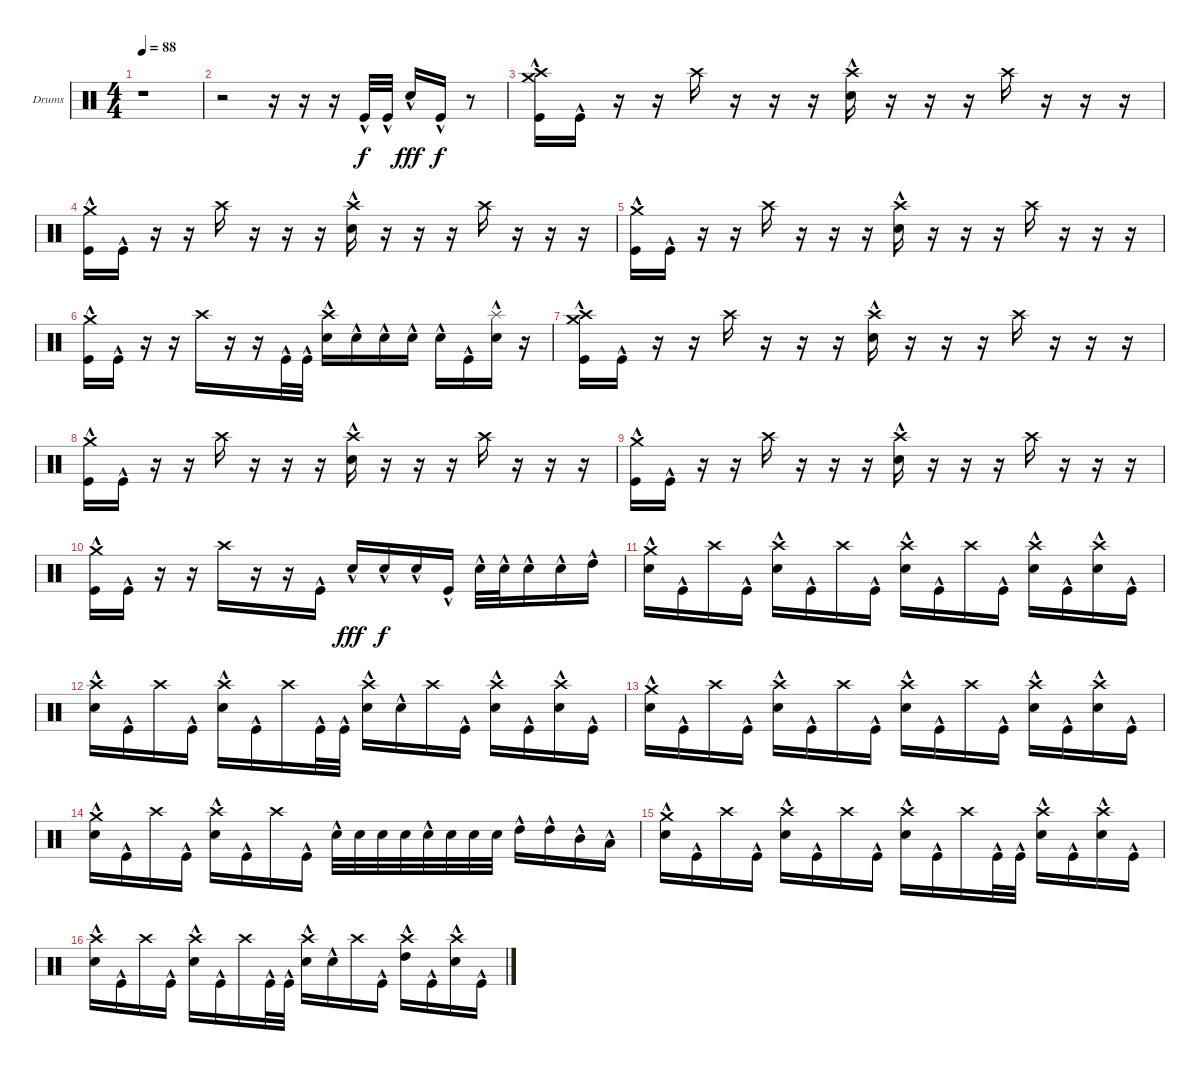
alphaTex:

\bracketExtendMode groupsimilarinstruments
\firstSystemTrackNameOrientation horizontal
\otherSystemsTrackNameOrientation horizontal
\track ("Drumkit" "Drums") {instrument percussion}
\staff {score}
\articulation defaults
\ts (4 4)
\tempo 88
\clef neutral
\ks c
r.1{dy f} |
r.2 r.16 r.16 r.16 "Kick (hit)"{hac}.32 "Kick (hit)"{hac}.32 "Snare (hit) 2"{hac}.16{dy fff} "Kick (hit)"{hac}.16{dy f} r.8 |
("Kick (hit)"{hac} "Crash high (hit)" "Crash medium (hit)").16 "Kick (hit)"{hac}.16 r.16 r.16 "Crash high (hit)".16 r.16 r.16 r.16 ("Snare (hit) 2"{hac} "Crash high (hit)").16 r.16 r.16 r.16 "Crash high (hit)".16 r.16 r.16 r.16 |
("Kick (hit)"{hac} "Crash medium (hit)").16 "Kick (hit)"{hac}.16 r.16 r.16 "Crash high (hit)".16 r.16 r.16 r.16 ("Snare (hit) 2"{hac} "Crash high (hit)").16 r.16 r.16 r.16 "Crash high (hit)".16 r.16 r.16 r.16 |
("Kick (hit)"{hac} "Crash medium (hit)").16 "Kick (hit)"{hac}.16 r.16 r.16 "Crash high (hit)".16 r.16 r.16 r.16 ("Snare (hit) 2"{hac} "Crash high (hit)").16 r.16 r.16 r.16 "Crash high (hit)".16 r.16 r.16 r.16 |
("Kick (hit)"{hac} "Crash medium (hit)").16 "Kick (hit)"{hac}.16 r.16 r.16 "Crash high (hit)".16 r.16 r.16 "Kick (hit)"{hac}.32 "Kick (hit)"{hac}.32 ("Snare (hit) 2"{hac} "Crash high (hit)").16 "Snare (hit) 2"{hac}.16 "Snare (hit) 2"{hac}.16 "Snare (hit) 2"{hac}.16 "Snare (hit) 2"{hac}.16 "Kick (hit)"{hac}.16 ("Snare (hit) 2"{hac} "Splash (hit)").16 r.16 |
("Kick (hit)"{hac} "Crash high (hit)" "Crash medium (hit)").16 "Kick (hit)"{hac}.16 r.16 r.16 "Crash high (hit)".16 r.16 r.16 r.16 ("Snare (hit) 2"{hac} "Crash high (hit)").16 r.16 r.16 r.16 "Crash high (hit)".16 r.16 r.16 r.16 |
("Kick (hit)"{hac} "Crash medium (hit)").16 "Kick (hit)"{hac}.16 r.16 r.16 "Crash high (hit)".16 r.16 r.16 r.16 ("Snare (hit) 2"{hac} "Crash high (hit)").16 r.16 r.16 r.16 "Crash high (hit)".16 r.16 r.16 r.16 |
("Kick (hit)"{hac} "Crash medium (hit)").16 "Kick (hit)"{hac}.16 r.16 r.16 "Crash high (hit)".16 r.16 r.16 r.16 ("Snare (hit) 2"{hac} "Crash high (hit)").16 r.16 r.16 r.16 "Crash high (hit)".16 r.16 r.16 r.16 |
("Kick (hit)"{hac} "Crash medium (hit)").16 "Kick (hit)"{hac}.16 r.16 r.16 "Crash high (hit)".16 r.16 r.16 "Kick (hit)"{hac}.16 "Snare (hit) 2"{hac}.16{dy fff} "Snare (hit) 2"{hac}.16{dy f} "Snare (hit) 2"{hac}.16 "Kick (hit)"{hac}.16 "Snare (hit) 2"{hac}.32 "Snare (hit) 2"{hac}.32 "Snare (hit) 2"{hac}.16 "Snare (hit) 2"{hac}.16 "High Tom (hit)"{hac}.16 |
("Snare (hit) 2"{hac} "Crash medium (hit)"{hac}).16 "Kick (hit)"{hac}.16 "Crash high (hit)".16 "Kick (hit)"{hac}.16 ("Snare (hit) 2"{hac} "Crash high (hit)").16 "Kick (hit)"{hac}.16 "Crash high (hit)".16 "Kick (hit)"{hac}.16 ("Snare (hit) 2"{hac} "Crash high (hit)").16 "Kick (hit)"{hac}.16 "Crash high (hit)".16 "Kick (hit)"{hac}.16 ("Snare (hit) 2"{hac} "Crash high (hit)").16 "Kick (hit)"{hac}.16 ("Snare (hit) 2"{hac} "Crash high (hit)").16 "Kick (hit)"{hac}.16 |
("Snare (hit) 2"{hac} "Crash high (hit)"{hac}).16 "Kick (hit)"{hac}.16 "Crash high (hit)".16 "Kick (hit)"{hac}.16 ("Snare (hit) 2"{hac} "Crash high (hit)").16 "Kick (hit)"{hac}.16 "Crash high (hit)".16 "Kick (hit)"{hac}.32 "Kick (hit)"{hac}.32 ("Snare (hit) 2"{hac} "Crash high (hit)").16 "Snare (hit) 2"{hac}.16 "Crash high (hit)".16 "Kick (hit)"{hac}.16 ("Snare (hit) 2"{hac} "Crash high (hit)").16 "Kick (hit)"{hac}.16 ("Snare (hit) 2"{hac} "Crash high (hit)").16 "Kick (hit)"{hac}.16 |
("Snare (hit) 2"{hac} "Crash medium (hit)"{hac}).16 "Kick (hit)"{hac}.16 "Crash high (hit)".16 "Kick (hit)"{hac}.16 ("Snare (hit) 2"{hac} "Crash high (hit)").16 "Kick (hit)"{hac}.16 "Crash high (hit)".16 "Kick (hit)"{hac}.16 ("Snare (hit) 2"{hac} "Crash high (hit)").16 "Kick (hit)"{hac}.16 "Crash high (hit)".16 "Kick (hit)"{hac}.16 ("Snare (hit) 2"{hac} "Crash high (hit)").16 "Kick (hit)"{hac}.16 ("Snare (hit) 2"{hac} "Crash high (hit)").16 "Kick (hit)"{hac}.16 |
("Snare (hit) 2"{hac} "Crash medium (hit)"{hac}).16 "Kick (hit)"{hac}.16 "Crash high (hit)".16 "Kick (hit)"{hac}.16 ("Snare (hit) 2"{hac} "Crash high (hit)").16 "Kick (hit)"{hac}.16 "Crash high (hit)".16 "Kick (hit)"{hac}.16 "Snare (hit) 2"{hac}.32 "Snare (hit) 2".32 "Snare (hit) 2".32 "Snare (hit) 2".32 "Snare (hit) 2"{hac}.32 "Snare (hit) 2".32 "Snare (hit) 2".32 "Snare (hit) 2".32 "High Tom (hit)"{hac}.16 "High Tom (hit)"{hac}.16 "Mid Tom (hit)"{hac}.16 "Low Tom (hit)"{hac}.16 |
("Snare (hit) 2"{hac} "Crash medium (hit)"{hac}).16 "Kick (hit)"{hac}.16 "Crash high (hit)".16 "Kick (hit)"{hac}.16 ("Snare (hit) 2"{hac} "Crash high (hit)").16 "Kick (hit)"{hac}.16 "Crash high (hit)".16 "Kick (hit)"{hac}.16 ("Snare (hit) 2"{hac} "Crash high (hit)").16 "Kick (hit)"{hac}.16 "Crash high (hit)".16 "Kick (hit)"{hac}.32 "Kick (hit)"{hac}.32 ("Snare (hit) 2"{hac} "Crash high (hit)").16 "Kick (hit)"{hac}.16 ("Snare (hit) 2"{hac} "Crash high (hit)").16 "Kick (hit)"{hac}.16 |
("Snare (hit) 2"{hac} "Crash high (hit)"{hac}).16 "Kick (hit)"{hac}.16 "Crash high (hit)".16 "Kick (hit)"{hac}.16 ("Snare (hit) 2"{hac} "Crash high (hit)").16 "Kick (hit)"{hac}.16 "Crash high (hit)".16 "Kick (hit)"{hac}.32 "Kick (hit)"{hac}.32 ("Snare (hit) 2"{hac} "Crash high (hit)").16 "Snare (hit) 2"{hac}.16 "Crash high (hit)".16 "Kick (hit)"{hac}.16 ("High Tom (hit)"{hac} "Crash high (hit)").16 "Kick (hit)"{hac}.16 ("Snare (hit) 2"{hac} "Crash high (hit)").16 "Kick (hit)"{hac}.16
